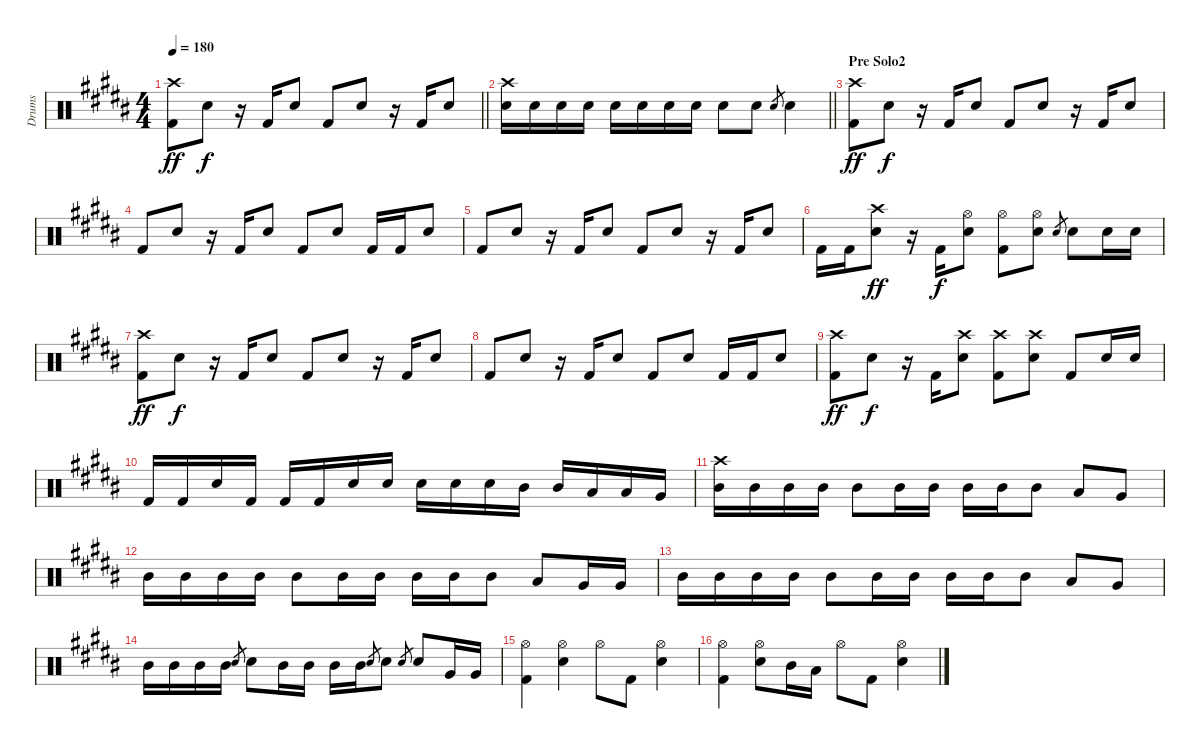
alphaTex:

\track ("Drums" "Drums") {instrument percussion}
\staff {score}
\articulation defaults
\ts (4 4)
\tempo 180
\clef neutral
\barLineRight lightlight
\ks g#minor
("Kick (hit) 2" "Crash high (hit)").8{dy ff} "Snare (hit) 2".8{dy f} r.16 "Kick (hit) 2".16 "Snare (hit) 2".8 "Kick (hit) 2".8 "Snare (hit) 2".8 r.16 "Kick (hit) 2".16 "Snare (hit) 2".8 |
\barLineRight lightlight
("Snare (hit) 2" "Crash high (hit)").16 "Snare (hit) 2".16 "Snare (hit) 2".16 "Snare (hit) 2".16 "Snare (hit) 2".16 "Snare (hit) 2".16 "Snare (hit) 2".16 "Snare (hit) 2".16 "Snare (hit) 2".8 "Snare (hit) 2".8 "Snare (hit) 2".8{gr} "Snare (hit) 2".4 |
\section ("" "Pre Solo2")
("Kick (hit) 2" "Crash high (hit)").8{dy ff} "Snare (hit) 2".8{dy f} r.16 "Kick (hit) 2".16 "Snare (hit) 2".8 "Kick (hit) 2".8 "Snare (hit) 2".8 r.16 "Kick (hit) 2".16 "Snare (hit) 2".8 |
"Kick (hit) 2".8 "Snare (hit) 2".8 r.16 "Kick (hit) 2".16 "Snare (hit) 2".8 "Kick (hit) 2".8 "Snare (hit) 2".8 "Kick (hit) 2".16 "Kick (hit) 2".16 "Snare (hit) 2".8 |
"Kick (hit) 2".8 "Snare (hit) 2".8 r.16 "Kick (hit) 2".16 "Snare (hit) 2".8 "Kick (hit) 2".8 "Snare (hit) 2".8 r.16 "Kick (hit) 2".16 "Snare (hit) 2".8 |
"Kick (hit) 2".16 "Kick (hit) 2".16 ("Snare (hit) 2" "Crash high (hit)").8{dy ff} r.16 "Kick (hit) 2".16{dy f} ("Snare (hit) 2" "Hi-Hat (open)").8 ("Kick (hit) 2" "Hi-Hat (open)").8 ("Snare (hit) 2" "Hi-Hat (open)").8 "Snare (hit) 2".8{gr} "Snare (hit) 2".8 "Snare (hit) 2".16 "Snare (hit) 2".16 |
("Kick (hit) 2" "Crash high (hit)").8{dy ff} "Snare (hit) 2".8{dy f} r.16 "Kick (hit) 2".16 "Snare (hit) 2".8 "Kick (hit) 2".8 "Snare (hit) 2".8 r.16 "Kick (hit) 2".16 "Snare (hit) 2".8 |
"Kick (hit) 2".8 "Snare (hit) 2".8 r.16 "Kick (hit) 2".16 "Snare (hit) 2".8 "Kick (hit) 2".8 "Snare (hit) 2".8 "Kick (hit) 2".16 "Kick (hit) 2".16 "Snare (hit) 2".8 |
("Kick (hit) 2" "Crash high (hit)").8{dy ff} "Snare (hit) 2".8{dy f} r.16 "Kick (hit) 2".16 ("Snare (hit) 2" "Crash high (hit)").8 ("Kick (hit) 2" "Crash high (hit)").8 ("Snare (hit) 2" "Crash high (hit)").8 "Kick (hit) 2".8 "Snare (hit) 2".16 "Snare (hit) 2".16 |
"Kick (hit) 2".16 "Kick (hit) 2".16 "Snare (hit) 2".16 "Kick (hit) 2".16 "Kick (hit) 2".16 "Kick (hit) 2".16 "Snare (hit) 2".16 "Snare (hit) 2".16 "Snare (hit) 2".16 "Snare (hit) 2".16 "Snare (hit) 2".16 "Mid Tom (hit)".16 "Mid Tom (hit)".16 "Low Tom (hit)".16 "Low Tom (hit)".16 "Very Low Tom (hit)".16 |
("Crash high (hit)" "Mid Tom (hit)").16 "Mid Tom (hit)".16 "Mid Tom (hit)".16 "Mid Tom (hit)".16 "Mid Tom (hit)".8 "Mid Tom (hit)".16 "Mid Tom (hit)".16 "Mid Tom (hit)".16 "Mid Tom (hit)".16 "Mid Tom (hit)".8 "Low Tom (hit)".8 "Very Low Tom (hit)".8 |
"Mid Tom (hit)".16 "Mid Tom (hit)".16 "Mid Tom (hit)".16 "Mid Tom (hit)".16 "Mid Tom (hit)".8 "Mid Tom (hit)".16 "Mid Tom (hit)".16 "Mid Tom (hit)".16 "Mid Tom (hit)".16 "Mid Tom (hit)".8 "Low Tom (hit)".8 "Very Low Tom (hit)".16 "Very Low Tom (hit)".16 |
"Mid Tom (hit)".16 "Mid Tom (hit)".16 "Mid Tom (hit)".16 "Mid Tom (hit)".16 "Mid Tom (hit)".8 "Mid Tom (hit)".16 "Mid Tom (hit)".16 "Mid Tom (hit)".16 "Mid Tom (hit)".16 "Mid Tom (hit)".8 "Low Tom (hit)".8 "Very Low Tom (hit)".8 |
"Mid Tom (hit)".16 "Mid Tom (hit)".16 "Mid Tom (hit)".16 "Mid Tom (hit)".16 "Snare (hit) 2".8{gr} "Snare (hit) 2".8 "Mid Tom (hit)".16 "Mid Tom (hit)".16 "Mid Tom (hit)".16 "Mid Tom (hit)".16 "Snare (hit) 2".8{gr} "Snare (hit) 2".8 "Snare (hit) 2".8{gr} "Snare (hit) 2".8 "Very Low Tom (hit)".16 "Very Low Tom (hit)".16 |
("Hi-Hat (open)" "Kick (hit) 2").4 ("Hi-Hat (open)" "Snare (hit) 2").4 "Hi-Hat (open)".8 "Kick (hit) 2".8 ("Hi-Hat (open)" "Snare (hit) 2").4 |
("Hi-Hat (open)" "Kick (hit) 2").4 ("Hi-Hat (open)" "Snare (hit) 2").8 "Mid Tom (hit)".16 "Low Tom (hit)".16 "Hi-Hat (open)".8 "Kick (hit) 2".8 ("Hi-Hat (open)" "Snare (hit) 2").4
